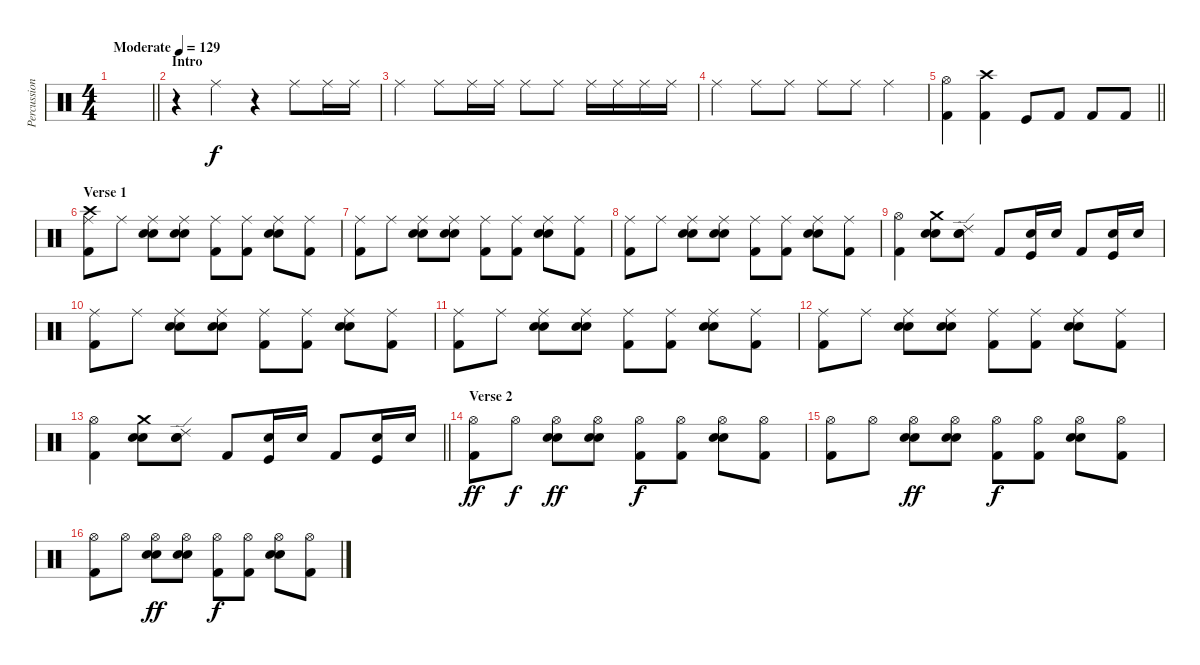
\track ("Percussion" "Percussion") {instrument percussion}
\staff {score}
\articulation defaults
\ts (4 4)
\tempo (129 "Moderate")
\clef neutral
\barLineRight lightlight
\ks c
|
\section ("" "Intro")
r.4 "Ride (middle)".4 r.4 "Ride (middle)".8 "Ride (middle)".16 "Ride (middle)".16 |
"Ride (middle)".4 "Ride (middle)".8 "Ride (middle)".16 "Ride (middle)".16 "Ride (middle)".8 "Ride (middle)".8 "Ride (middle)".16 "Ride (middle)".16 "Ride (middle)".16 "Ride (middle)".16 |
"Ride (middle)".4 "Ride (middle)".8 "Ride (middle)".8 "Ride (middle)".8 "Ride (middle)".8 "Ride (middle)".4 |
\barLineRight lightlight
("Hi-Hat (open)" "Kick (hit) 2").4 ("Crash high (hit)" "Kick (hit) 2").4 "Kick (hit)".8 "Kick (hit) 2".8 "Kick (hit) 2".8 "Kick (hit) 2".8 |
\section ("" "Verse 1")
("Kick (hit) 2" "Ride (middle)" "Crash high (hit)").8 "Ride (middle)".8 ("Hand Clap (hit)" "Electric Snare (hit)" "Ride (middle)").8 ("Electric Snare (hit)" "Hand Clap (hit)" "Ride (middle)").8 ("Kick (hit) 2" "Ride (middle)").8 ("Kick (hit) 2" "Ride (middle)").8 ("Electric Snare (hit)" "Ride (middle)" "Hand Clap (hit)").8 ("Kick (hit) 2" "Ride (middle)").8 |
("Kick (hit) 2" "Ride (middle)").8 "Ride (middle)".8 ("Hand Clap (hit)" "Electric Snare (hit)" "Ride (middle)").8 ("Electric Snare (hit)" "Hand Clap (hit)" "Ride (middle)").8 ("Kick (hit) 2" "Ride (middle)").8 ("Kick (hit) 2" "Ride (middle)").8 ("Electric Snare (hit)" "Ride (middle)" "Hand Clap (hit)").8 ("Kick (hit) 2" "Ride (middle)").8 |
("Kick (hit) 2" "Ride (middle)").8 "Ride (middle)".8 ("Hand Clap (hit)" "Electric Snare (hit)" "Ride (middle)").8 ("Electric Snare (hit)" "Hand Clap (hit)" "Ride (middle)").8 ("Kick (hit) 2" "Ride (middle)").8 ("Kick (hit) 2" "Ride (middle)").8 ("Electric Snare (hit)" "Ride (middle)" "Hand Clap (hit)").8 ("Kick (hit) 2" "Ride (middle)").8 |
("Kick (hit) 2" "Hi-Hat (open)").4 ("Hand Clap (hit)" "Electric Snare (hit)" "Crash medium (hit)").8 ("Electric Snare (hit)" "Hand Clap (hit)" "Ride (edge) 2").8 "Kick (hit) 2".8 ("Electric Snare (hit)" "Kick (hit)").16 "Electric Snare (hit)".16 "Kick (hit) 2".8 ("Electric Snare (hit)" "Kick (hit)").16 "Electric Snare (hit)".16 |
("Kick (hit) 2" "Ride (middle)").8 "Ride (middle)".8 ("Hand Clap (hit)" "Electric Snare (hit)" "Ride (middle)").8 ("Electric Snare (hit)" "Hand Clap (hit)" "Ride (middle)").8 ("Kick (hit) 2" "Ride (middle)").8 ("Kick (hit) 2" "Ride (middle)").8 ("Electric Snare (hit)" "Ride (middle)" "Hand Clap (hit)").8 ("Kick (hit) 2" "Ride (middle)").8 |
("Kick (hit) 2" "Ride (middle)").8 "Ride (middle)".8 ("Hand Clap (hit)" "Electric Snare (hit)" "Ride (middle)").8 ("Electric Snare (hit)" "Hand Clap (hit)" "Ride (middle)").8 ("Kick (hit) 2" "Ride (middle)").8 ("Kick (hit) 2" "Ride (middle)").8 ("Electric Snare (hit)" "Ride (middle)" "Hand Clap (hit)").8 ("Kick (hit) 2" "Ride (middle)").8 |
("Kick (hit) 2" "Ride (middle)").8 "Ride (middle)".8 ("Hand Clap (hit)" "Electric Snare (hit)" "Ride (middle)").8 ("Electric Snare (hit)" "Hand Clap (hit)" "Ride (middle)").8 ("Kick (hit) 2" "Ride (middle)").8 ("Kick (hit) 2" "Ride (middle)").8 ("Electric Snare (hit)" "Ride (middle)" "Hand Clap (hit)").8 ("Kick (hit) 2" "Ride (middle)").8 |
\barLineRight lightlight
("Kick (hit) 2" "Hi-Hat (open)").4 ("Hand Clap (hit)" "Electric Snare (hit)" "Crash medium (hit)").8 ("Electric Snare (hit)" "Hand Clap (hit)" "Ride (edge) 2").8 "Kick (hit) 2".8 ("Electric Snare (hit)" "Kick (hit)").16 "Electric Snare (hit)".16 "Kick (hit) 2".8 ("Electric Snare (hit)" "Kick (hit)").16 "Electric Snare (hit)".16 |
\section ("" "Verse 2")
("Kick (hit) 2" "Hi-Hat (open)").8{dy ff} "Hi-Hat (open)".8{dy f} ("Hand Clap (hit)" "Hi-Hat (open)" "Electric Snare (hit)").8{dy ff} ("Electric Snare (hit)" "Hi-Hat (open)" "Hand Clap (hit)").8 ("Kick (hit) 2" "Hi-Hat (open)").8{dy f} ("Kick (hit) 2" "Hi-Hat (open)").8 ("Electric Snare (hit)" "Hi-Hat (open)" "Hand Clap (hit)").8 ("Kick (hit) 2" "Hi-Hat (open)").8 |
("Kick (hit) 2" "Hi-Hat (open)").8 "Hi-Hat (open)".8 ("Hand Clap (hit)" "Hi-Hat (open)" "Electric Snare (hit)").8{dy ff} ("Electric Snare (hit)" "Hi-Hat (open)" "Hand Clap (hit)").8 ("Kick (hit) 2" "Hi-Hat (open)").8{dy f} ("Kick (hit) 2" "Hi-Hat (open)").8 ("Electric Snare (hit)" "Hi-Hat (open)" "Hand Clap (hit)").8 ("Kick (hit) 2" "Hi-Hat (open)").8 |
("Kick (hit) 2" "Hi-Hat (open)").8 "Hi-Hat (open)".8 ("Hand Clap (hit)" "Hi-Hat (open)" "Electric Snare (hit)").8{dy ff} ("Electric Snare (hit)" "Hi-Hat (open)" "Hand Clap (hit)").8 ("Kick (hit) 2" "Hi-Hat (open)").8{dy f} ("Kick (hit) 2" "Hi-Hat (open)").8 ("Electric Snare (hit)" "Hi-Hat (open)" "Hand Clap (hit)").8 ("Kick (hit) 2" "Hi-Hat (open)").8
